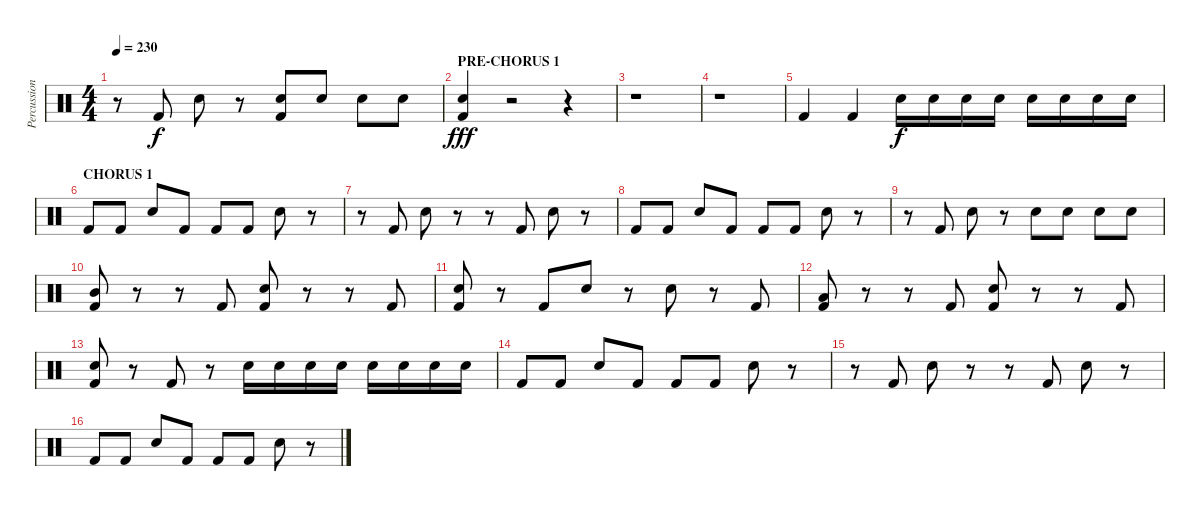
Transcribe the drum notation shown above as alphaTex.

\track ("Percussions" "Percussion") {instrument percussion}
\staff {score}
\articulation defaults
\ts (4 4)
\tempo 230
\clef neutral
\ks c
r.8{dy f} "Kick (hit) 2".8 "Snare (hit) 2".8 r.8 ("Snare (hit) 2" "Kick (hit) 2").8 "Snare (hit) 2".8 "Snare (hit) 2".8 "Snare (hit) 2".8 |
\section ("" "PRE-CHORUS 1")
("Snare (hit) 2" "Kick (hit) 2").4{dy fff} r.2 r.4 |
r.1 |
r.1 |
"Kick (hit) 2".4 "Kick (hit) 2".4 "Snare (hit) 2".16{dy f} "Snare (hit) 2".16 "Snare (hit) 2".16 "Snare (hit) 2".16 "Snare (hit) 2".16 "Snare (hit) 2".16 "Snare (hit) 2".16 "Snare (hit) 2".16 |
\section ("" "CHORUS 1")
"Kick (hit) 2".8 "Kick (hit) 2".8 "Snare (hit) 2".8 "Kick (hit) 2".8 "Kick (hit) 2".8 "Kick (hit) 2".8 "Snare (hit) 2".8 r.8 |
r.8 "Kick (hit) 2".8 "Snare (hit) 2".8 r.8 r.8 "Kick (hit) 2".8 "Snare (hit) 2".8 r.8 |
"Kick (hit) 2".8 "Kick (hit) 2".8 "Snare (hit) 2".8 "Kick (hit) 2".8 "Kick (hit) 2".8 "Kick (hit) 2".8 "Snare (hit) 2".8 r.8 |
r.8 "Kick (hit) 2".8 "Snare (hit) 2".8 r.8 "Snare (hit) 2".8 "Snare (hit) 2".8 "Snare (hit) 2".8 "Snare (hit) 2".8 |
("Mid Tom (hit)" "Kick (hit) 2").8 r.8 r.8 "Kick (hit) 2".8 ("Snare (hit) 2" "Kick (hit) 2").8 r.8 r.8 "Kick (hit) 2".8 |
("Snare (hit) 2" "Kick (hit) 2").8 r.8 "Kick (hit) 2".8 "Snare (hit) 2".8 r.8 "Snare (hit) 2".8 r.8 "Kick (hit) 2".8 |
("Low Tom (hit)" "Kick (hit) 2").8 r.8 r.8 "Kick (hit) 2".8 ("Snare (hit) 2" "Kick (hit) 2").8 r.8 r.8 "Kick (hit) 2".8 |
("Snare (hit) 2" "Kick (hit) 2").8 r.8 "Kick (hit) 2".8 r.8 "Snare (hit) 2".16 "Snare (hit) 2".16 "Snare (hit) 2".16 "Snare (hit) 2".16 "Snare (hit) 2".16 "Snare (hit) 2".16 "Snare (hit) 2".16 "Snare (hit) 2".16 |
"Kick (hit) 2".8 "Kick (hit) 2".8 "Snare (hit) 2".8 "Kick (hit) 2".8 "Kick (hit) 2".8 "Kick (hit) 2".8 "Snare (hit) 2".8 r.8 |
r.8 "Kick (hit) 2".8 "Snare (hit) 2".8 r.8 r.8 "Kick (hit) 2".8 "Snare (hit) 2".8 r.8 |
"Kick (hit) 2".8 "Kick (hit) 2".8 "Snare (hit) 2".8 "Kick (hit) 2".8 "Kick (hit) 2".8 "Kick (hit) 2".8 "Snare (hit) 2".8 r.8
